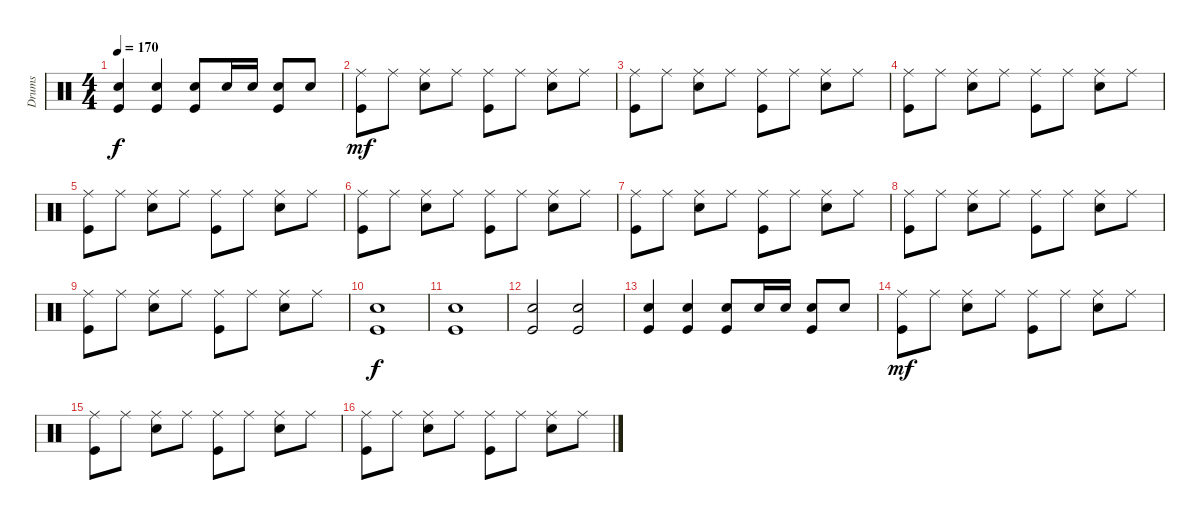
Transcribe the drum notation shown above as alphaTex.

\track ("Drums" "Drums") {instrument percussion}
\staff {score}
\articulation defaults
\ts (4 4)
\tempo 170
\clef neutral
\ks c
("Snare (hit) 2" "Kick (hit)").4{dy f} ("Snare (hit) 2" "Kick (hit)").4 ("Snare (hit) 2" "Kick (hit)").8 "Snare (hit) 2".16 "Snare (hit) 2".16 ("Snare (hit) 2" "Kick (hit)").8 "Snare (hit) 2".8 |
("Ride (middle)" "Kick (hit)").8{dy mf} "Ride (middle)".8 ("Ride (middle)" "Snare (hit) 2").8 "Ride (middle)".8 ("Ride (middle)" "Kick (hit)").8 "Ride (middle)".8 ("Ride (middle)" "Snare (hit) 2").8 "Ride (middle)".8 |
("Ride (middle)" "Kick (hit)").8 "Ride (middle)".8 ("Ride (middle)" "Snare (hit) 2").8 "Ride (middle)".8 ("Ride (middle)" "Kick (hit)").8 "Ride (middle)".8 ("Ride (middle)" "Snare (hit) 2").8 "Ride (middle)".8 |
("Ride (middle)" "Kick (hit)").8 "Ride (middle)".8 ("Ride (middle)" "Snare (hit) 2").8 "Ride (middle)".8 ("Ride (middle)" "Kick (hit)").8 "Ride (middle)".8 ("Ride (middle)" "Snare (hit) 2").8 "Ride (middle)".8 |
("Ride (middle)" "Kick (hit)").8 "Ride (middle)".8 ("Ride (middle)" "Snare (hit) 2").8 "Ride (middle)".8 ("Ride (middle)" "Kick (hit)").8 "Ride (middle)".8 ("Ride (middle)" "Snare (hit) 2").8 "Ride (middle)".8 |
("Ride (middle)" "Kick (hit)").8 "Ride (middle)".8 ("Ride (middle)" "Snare (hit) 2").8 "Ride (middle)".8 ("Ride (middle)" "Kick (hit)").8 "Ride (middle)".8 ("Ride (middle)" "Snare (hit) 2").8 "Ride (middle)".8 |
("Ride (middle)" "Kick (hit)").8 "Ride (middle)".8 ("Ride (middle)" "Snare (hit) 2").8 "Ride (middle)".8 ("Ride (middle)" "Kick (hit)").8 "Ride (middle)".8 ("Ride (middle)" "Snare (hit) 2").8 "Ride (middle)".8 |
("Ride (middle)" "Kick (hit)").8 "Ride (middle)".8 ("Ride (middle)" "Snare (hit) 2").8 "Ride (middle)".8 ("Ride (middle)" "Kick (hit)").8 "Ride (middle)".8 ("Ride (middle)" "Snare (hit) 2").8 "Ride (middle)".8 |
("Ride (middle)" "Kick (hit)").8 "Ride (middle)".8 ("Ride (middle)" "Snare (hit) 2").8 "Ride (middle)".8 ("Ride (middle)" "Kick (hit)").8 "Ride (middle)".8 ("Ride (middle)" "Snare (hit) 2").8 "Ride (middle)".8 |
("Snare (hit) 2" "Kick (hit)").1{dy f} |
("Snare (hit) 2" "Kick (hit)").1 |
("Snare (hit) 2" "Kick (hit)").2 ("Snare (hit) 2" "Kick (hit)").2 |
("Snare (hit) 2" "Kick (hit)").4 ("Snare (hit) 2" "Kick (hit)").4 ("Snare (hit) 2" "Kick (hit)").8 "Snare (hit) 2".16 "Snare (hit) 2".16 ("Snare (hit) 2" "Kick (hit)").8 "Snare (hit) 2".8 |
("Ride (middle)" "Kick (hit)").8{dy mf} "Ride (middle)".8 ("Ride (middle)" "Snare (hit) 2").8 "Ride (middle)".8 ("Ride (middle)" "Kick (hit)").8 "Ride (middle)".8 ("Ride (middle)" "Snare (hit) 2").8 "Ride (middle)".8 |
("Ride (middle)" "Kick (hit)").8 "Ride (middle)".8 ("Ride (middle)" "Snare (hit) 2").8 "Ride (middle)".8 ("Ride (middle)" "Kick (hit)").8 "Ride (middle)".8 ("Ride (middle)" "Snare (hit) 2").8 "Ride (middle)".8 |
("Ride (middle)" "Kick (hit)").8 "Ride (middle)".8 ("Ride (middle)" "Snare (hit) 2").8 "Ride (middle)".8 ("Ride (middle)" "Kick (hit)").8 "Ride (middle)".8 ("Ride (middle)" "Snare (hit) 2").8 "Ride (middle)".8
